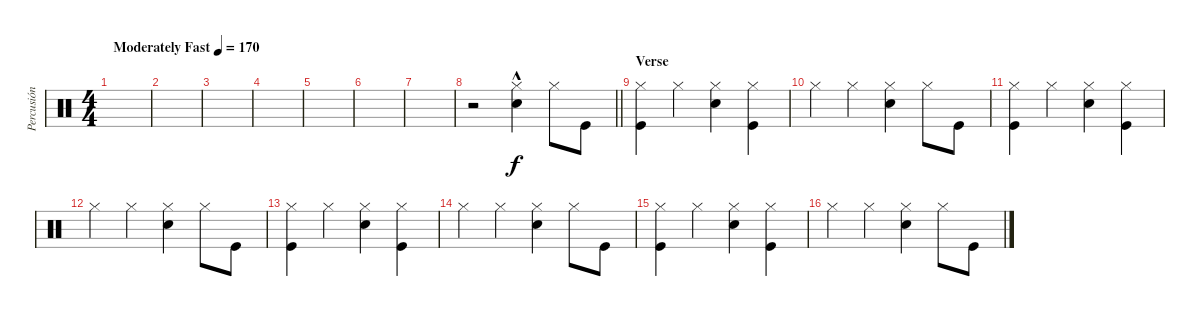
\track ("Percusión" "Percusión") {instrument percussion}
\staff {score}
\articulation defaults
\ts (4 4)
\tempo (170 "Moderately Fast")
\clef neutral
\ks c
|
|
|
|
|
|
|
\barLineRight lightlight
r.2 ("Hi-Hat (closed)" "Electric Snare (hit)"{hac}).4 "Hi-Hat (closed)".8{dy f} "Kick (hit)".8 |
\section ("" "Verse")
("Hi-Hat (closed)" "Kick (hit)").4 "Hi-Hat (closed)".4 ("Hi-Hat (closed)" "Electric Snare (hit)").4 ("Hi-Hat (closed)" "Kick (hit)").4 |
"Hi-Hat (closed)".4 "Hi-Hat (closed)".4 ("Hi-Hat (closed)" "Electric Snare (hit)").4 "Hi-Hat (closed)".8 "Kick (hit)".8 |
("Hi-Hat (closed)" "Kick (hit)").4 "Hi-Hat (closed)".4 ("Hi-Hat (closed)" "Electric Snare (hit)").4 ("Hi-Hat (closed)" "Kick (hit)").4 |
"Hi-Hat (closed)".4 "Hi-Hat (closed)".4 ("Hi-Hat (closed)" "Electric Snare (hit)").4 "Hi-Hat (closed)".8 "Kick (hit)".8 |
("Hi-Hat (closed)" "Kick (hit)").4 "Hi-Hat (closed)".4 ("Hi-Hat (closed)" "Electric Snare (hit)").4 ("Hi-Hat (closed)" "Kick (hit)").4 |
"Hi-Hat (closed)".4 "Hi-Hat (closed)".4 ("Hi-Hat (closed)" "Electric Snare (hit)").4 "Hi-Hat (closed)".8 "Kick (hit)".8 |
("Hi-Hat (closed)" "Kick (hit)").4 "Hi-Hat (closed)".4 ("Hi-Hat (closed)" "Electric Snare (hit)").4 ("Hi-Hat (closed)" "Kick (hit)").4 |
"Hi-Hat (closed)".4 "Hi-Hat (closed)".4 ("Hi-Hat (closed)" "Electric Snare (hit)").4 "Hi-Hat (closed)".8 "Kick (hit)".8
